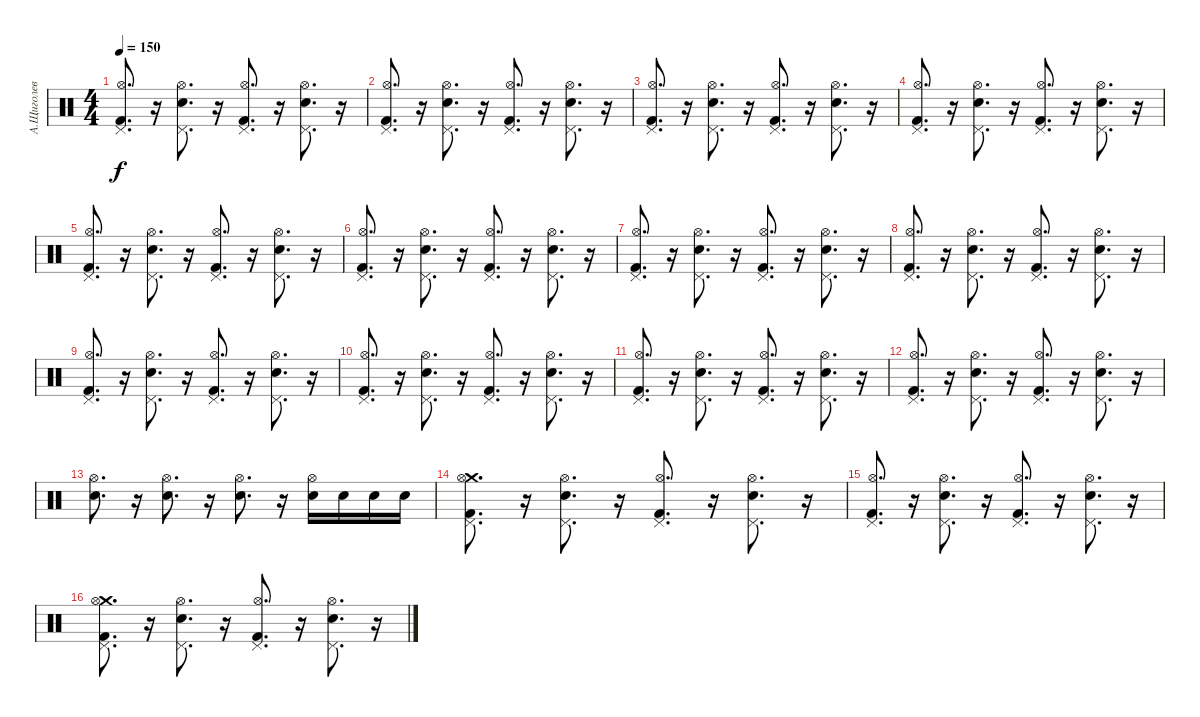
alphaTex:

\track ("А.Щиголев" "А.Щиголев") {instrument percussion}
\staff {score}
\articulation defaults
\ts (4 4)
\tempo 150
\clef neutral
\ks c
("Kick (hit) 2" "Hi-Hat (open)" "Pedal Hi-Hat (hit)").8{d dy f} r.16 ("Snare (hit) 2" "Hi-Hat (open)" "Pedal Hi-Hat (hit)").8{d} r.16 ("Kick (hit) 2" "Hi-Hat (open)" "Pedal Hi-Hat (hit)").8{d} r.16 ("Snare (hit) 2" "Hi-Hat (open)" "Pedal Hi-Hat (hit)").8{d} r.16 |
("Kick (hit) 2" "Hi-Hat (open)" "Pedal Hi-Hat (hit)").8{d} r.16 ("Snare (hit) 2" "Hi-Hat (open)" "Pedal Hi-Hat (hit)").8{d} r.16 ("Kick (hit) 2" "Hi-Hat (open)" "Pedal Hi-Hat (hit)").8{d} r.16 ("Snare (hit) 2" "Hi-Hat (open)" "Pedal Hi-Hat (hit)").8{d} r.16 |
("Kick (hit) 2" "Hi-Hat (open)" "Pedal Hi-Hat (hit)").8{d} r.16 ("Snare (hit) 2" "Hi-Hat (open)" "Pedal Hi-Hat (hit)").8{d} r.16 ("Kick (hit) 2" "Hi-Hat (open)" "Pedal Hi-Hat (hit)").8{d} r.16 ("Snare (hit) 2" "Hi-Hat (open)" "Pedal Hi-Hat (hit)").8{d} r.16 |
("Kick (hit) 2" "Hi-Hat (open)" "Pedal Hi-Hat (hit)").8{d} r.16 ("Snare (hit) 2" "Hi-Hat (open)" "Pedal Hi-Hat (hit)").8{d} r.16 ("Kick (hit) 2" "Hi-Hat (open)" "Pedal Hi-Hat (hit)").8{d} r.16 ("Snare (hit) 2" "Hi-Hat (open)" "Pedal Hi-Hat (hit)").8{d} r.16 |
("Kick (hit) 2" "Hi-Hat (open)" "Pedal Hi-Hat (hit)").8{d} r.16 ("Snare (hit) 2" "Hi-Hat (open)" "Pedal Hi-Hat (hit)").8{d} r.16 ("Kick (hit) 2" "Hi-Hat (open)" "Pedal Hi-Hat (hit)").8{d} r.16 ("Snare (hit) 2" "Hi-Hat (open)" "Pedal Hi-Hat (hit)").8{d} r.16 |
("Kick (hit) 2" "Hi-Hat (open)" "Pedal Hi-Hat (hit)").8{d} r.16 ("Snare (hit) 2" "Hi-Hat (open)" "Pedal Hi-Hat (hit)").8{d} r.16 ("Kick (hit) 2" "Hi-Hat (open)" "Pedal Hi-Hat (hit)").8{d} r.16 ("Snare (hit) 2" "Hi-Hat (open)" "Pedal Hi-Hat (hit)").8{d} r.16 |
("Kick (hit) 2" "Hi-Hat (open)" "Pedal Hi-Hat (hit)").8{d} r.16 ("Snare (hit) 2" "Hi-Hat (open)" "Pedal Hi-Hat (hit)").8{d} r.16 ("Kick (hit) 2" "Hi-Hat (open)" "Pedal Hi-Hat (hit)").8{d} r.16 ("Snare (hit) 2" "Hi-Hat (open)" "Pedal Hi-Hat (hit)").8{d} r.16 |
("Kick (hit) 2" "Hi-Hat (open)" "Pedal Hi-Hat (hit)").8{d} r.16 ("Snare (hit) 2" "Hi-Hat (open)" "Pedal Hi-Hat (hit)").8{d} r.16 ("Kick (hit) 2" "Hi-Hat (open)" "Pedal Hi-Hat (hit)").8{d} r.16 ("Snare (hit) 2" "Hi-Hat (open)" "Pedal Hi-Hat (hit)").8{d} r.16 |
("Kick (hit) 2" "Hi-Hat (open)" "Pedal Hi-Hat (hit)").8{d} r.16 ("Snare (hit) 2" "Hi-Hat (open)" "Pedal Hi-Hat (hit)").8{d} r.16 ("Kick (hit) 2" "Hi-Hat (open)" "Pedal Hi-Hat (hit)").8{d} r.16 ("Snare (hit) 2" "Hi-Hat (open)" "Pedal Hi-Hat (hit)").8{d} r.16 |
("Kick (hit) 2" "Hi-Hat (open)" "Pedal Hi-Hat (hit)").8{d} r.16 ("Snare (hit) 2" "Hi-Hat (open)" "Pedal Hi-Hat (hit)").8{d} r.16 ("Kick (hit) 2" "Hi-Hat (open)" "Pedal Hi-Hat (hit)").8{d} r.16 ("Snare (hit) 2" "Hi-Hat (open)" "Pedal Hi-Hat (hit)").8{d} r.16 |
("Kick (hit) 2" "Hi-Hat (open)" "Pedal Hi-Hat (hit)").8{d} r.16 ("Snare (hit) 2" "Hi-Hat (open)" "Pedal Hi-Hat (hit)").8{d} r.16 ("Kick (hit) 2" "Hi-Hat (open)" "Pedal Hi-Hat (hit)").8{d} r.16 ("Snare (hit) 2" "Hi-Hat (open)" "Pedal Hi-Hat (hit)").8{d} r.16 |
("Kick (hit) 2" "Hi-Hat (open)" "Pedal Hi-Hat (hit)").8{d} r.16 ("Snare (hit) 2" "Hi-Hat (open)" "Pedal Hi-Hat (hit)").8{d} r.16 ("Kick (hit) 2" "Hi-Hat (open)" "Pedal Hi-Hat (hit)").8{d} r.16 ("Snare (hit) 2" "Hi-Hat (open)" "Pedal Hi-Hat (hit)").8{d} r.16 |
("Snare (hit) 2" "Hi-Hat (open)").8{d} r.16 ("Snare (hit) 2" "Hi-Hat (open)").8{d} r.16 ("Snare (hit) 2" "Hi-Hat (open)").8{d} r.16 ("Snare (hit) 2" "Hi-Hat (open)").16 "Snare (hit) 2".16 "Snare (hit) 2".16 "Snare (hit) 2".16 |
("Crash medium (hit)" "Kick (hit) 2" "Hi-Hat (open)" "Pedal Hi-Hat (hit)").8{d} r.16 ("Snare (hit) 2" "Hi-Hat (open)" "Pedal Hi-Hat (hit)").8{d} r.16 ("Kick (hit) 2" "Hi-Hat (open)" "Pedal Hi-Hat (hit)").8{d} r.16 ("Snare (hit) 2" "Hi-Hat (open)" "Pedal Hi-Hat (hit)").8{d} r.16 |
("Kick (hit) 2" "Hi-Hat (open)" "Pedal Hi-Hat (hit)").8{d} r.16 ("Snare (hit) 2" "Hi-Hat (open)" "Pedal Hi-Hat (hit)").8{d} r.16 ("Kick (hit) 2" "Hi-Hat (open)" "Pedal Hi-Hat (hit)").8{d} r.16 ("Snare (hit) 2" "Hi-Hat (open)" "Pedal Hi-Hat (hit)").8{d} r.16 |
("Crash medium (hit)" "Kick (hit) 2" "Hi-Hat (open)" "Pedal Hi-Hat (hit)").8{d} r.16 ("Snare (hit) 2" "Hi-Hat (open)" "Pedal Hi-Hat (hit)").8{d} r.16 ("Kick (hit) 2" "Hi-Hat (open)" "Pedal Hi-Hat (hit)").8{d} r.16 ("Snare (hit) 2" "Hi-Hat (open)" "Pedal Hi-Hat (hit)").8{d} r.16
